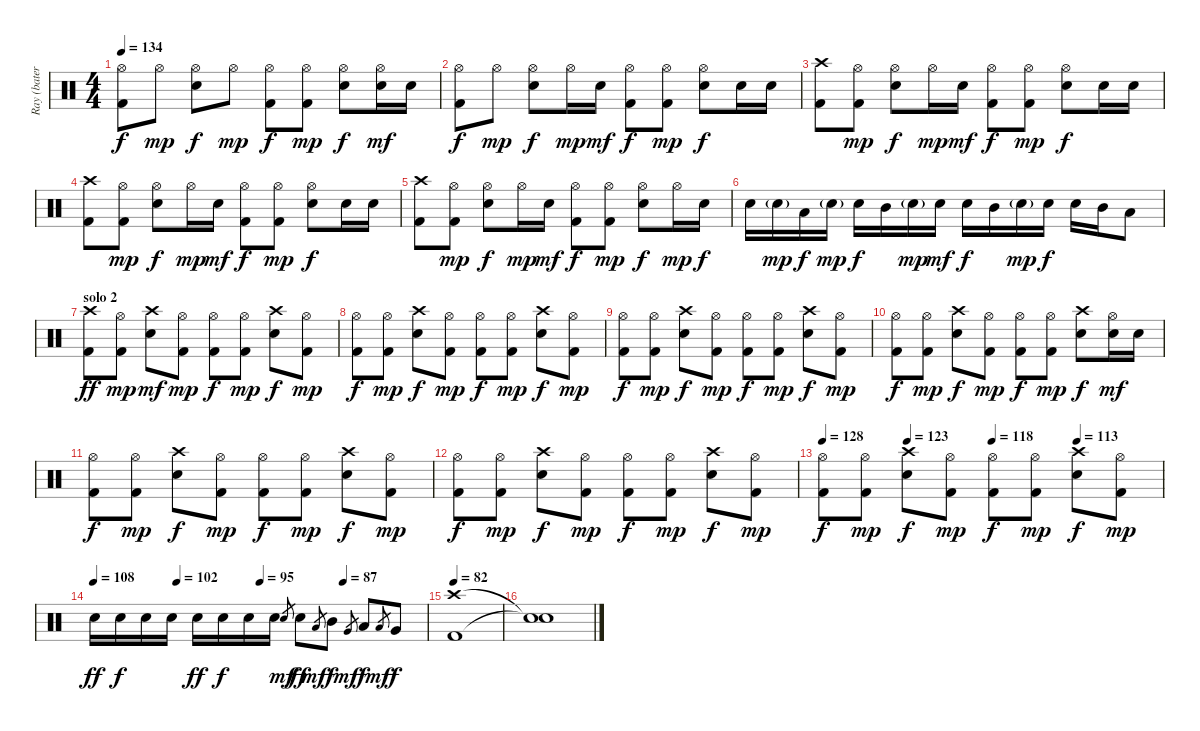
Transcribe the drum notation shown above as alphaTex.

\track ("Ray (batería)" "Ray (bater") {instrument percussion}
\staff {score}
\articulation defaults
\ts (4 4)
\tempo 134
\clef neutral
\ks c
("Hi-Hat (open)" "Kick (hit) 2").8{dy f} "Hi-Hat (open)".8{dy mp} ("Hi-Hat (open)" "Snare (hit) 2").8{dy f} "Hi-Hat (open)".8{dy mp} ("Hi-Hat (open)" "Kick (hit) 2").8{dy f} ("Hi-Hat (open)" "Kick (hit) 2").8{dy mp} ("Hi-Hat (open)" "Snare (hit) 2").8{dy f} ("Hi-Hat (open)" "Snare (hit) 2").16{dy mf} "Snare (hit) 2".16 |
("Hi-Hat (open)" "Kick (hit) 2").8{dy f} "Hi-Hat (open)".8{dy mp} ("Hi-Hat (open)" "Snare (hit) 2").8{dy f} "Hi-Hat (open)".16{dy mp} "Snare (hit) 2".16{dy mf} ("Hi-Hat (open)" "Kick (hit) 2").8{dy f} ("Hi-Hat (open)" "Kick (hit) 2").8{dy mp} ("Hi-Hat (open)" "Snare (hit) 2").8{dy f} "Snare (hit) 2".16 "Snare (hit) 2".16 |
("Crash high (hit)" "Kick (hit) 2").8 ("Hi-Hat (open)" "Kick (hit) 2").8{dy mp} ("Hi-Hat (open)" "Snare (hit) 2").8{dy f} "Hi-Hat (open)".16{dy mp} "Snare (hit) 2".16{dy mf} ("Hi-Hat (open)" "Kick (hit) 2").8{dy f} ("Hi-Hat (open)" "Kick (hit) 2").8{dy mp} ("Hi-Hat (open)" "Snare (hit) 2").8{dy f} "Snare (hit) 2".16 "Snare (hit) 2".16 |
("Crash high (hit)" "Kick (hit) 2").8 ("Hi-Hat (open)" "Kick (hit) 2").8{dy mp} ("Hi-Hat (open)" "Snare (hit) 2").8{dy f} "Hi-Hat (open)".16{dy mp} "Snare (hit) 2".16{dy mf} ("Hi-Hat (open)" "Kick (hit) 2").8{dy f} ("Hi-Hat (open)" "Kick (hit) 2").8{dy mp} ("Hi-Hat (open)" "Snare (hit) 2").8{dy f} "Snare (hit) 2".16 "Snare (hit) 2".16 |
("Crash high (hit)" "Kick (hit) 2").8 ("Hi-Hat (open)" "Kick (hit) 2").8{dy mp} ("Hi-Hat (open)" "Snare (hit) 2").8{dy f} "Hi-Hat (open)".16{dy mp} "Snare (hit) 2".16{dy mf} ("Hi-Hat (open)" "Kick (hit) 2").8{dy f} ("Hi-Hat (open)" "Kick (hit) 2").8{dy mp} ("Hi-Hat (open)" "Snare (hit) 2").8{dy f} "Hi-Hat (open)".16{dy mp} "Snare (hit) 2".16{dy f} |
"Snare (hit) 2".16 "Snare (hit) 2"{g}.16{dy mp} "Low Tom (hit)".16{dy f} "Snare (hit) 2"{g}.16{dy mp} "Snare (hit) 2".16{dy f} "Mid Tom (hit)".16 "Snare (hit) 2"{g}.16{dy mp} "Snare (hit) 2".16{dy mf} "Snare (hit) 2".16{dy f} "Mid Tom (hit)".16 "Snare (hit) 2"{g}.16{dy mp} "Snare (hit) 2".16{dy f} "Snare (hit) 2".16 "Mid Tom (hit)".16 "Low Tom (hit)".8 |
\section ("" "solo 2")
("Crash high (hit)" "Kick (hit) 2").8{dy ff} ("Hi-Hat (open)" "Kick (hit) 2").8{dy mp} ("Crash high (hit)" "Snare (hit) 2").8{dy mf} ("Hi-Hat (open)" "Kick (hit) 2").8{dy mp} ("Hi-Hat (open)" "Kick (hit) 2").8{dy f} ("Hi-Hat (open)" "Kick (hit) 2").8{dy mp} ("Crash high (hit)" "Snare (hit) 2").8{dy f} ("Hi-Hat (open)" "Kick (hit) 2").8{dy mp} |
("Hi-Hat (open)" "Kick (hit) 2").8{dy f} ("Hi-Hat (open)" "Kick (hit) 2").8{dy mp} ("Crash high (hit)" "Snare (hit) 2").8{dy f} ("Hi-Hat (open)" "Kick (hit) 2").8{dy mp} ("Hi-Hat (open)" "Kick (hit) 2").8{dy f} ("Hi-Hat (open)" "Kick (hit) 2").8{dy mp} ("Crash high (hit)" "Snare (hit) 2").8{dy f} ("Hi-Hat (open)" "Kick (hit) 2").8{dy mp} |
("Hi-Hat (open)" "Kick (hit) 2").8{dy f} ("Hi-Hat (open)" "Kick (hit) 2").8{dy mp} ("Crash high (hit)" "Snare (hit) 2").8{dy f} ("Hi-Hat (open)" "Kick (hit) 2").8{dy mp} ("Hi-Hat (open)" "Kick (hit) 2").8{dy f} ("Hi-Hat (open)" "Kick (hit) 2").8{dy mp} ("Crash high (hit)" "Snare (hit) 2").8{dy f} ("Hi-Hat (open)" "Kick (hit) 2").8{dy mp} |
("Hi-Hat (open)" "Kick (hit) 2").8{dy f} ("Hi-Hat (open)" "Kick (hit) 2").8{dy mp} ("Crash high (hit)" "Snare (hit) 2").8{dy f} ("Hi-Hat (open)" "Kick (hit) 2").8{dy mp} ("Hi-Hat (open)" "Kick (hit) 2").8{dy f} ("Hi-Hat (open)" "Kick (hit) 2").8{dy mp} ("Crash high (hit)" "Snare (hit) 2").8{dy f} ("Hi-Hat (open)" "Snare (hit) 2").16{dy mf} "Snare (hit) 2".16 |
("Hi-Hat (open)" "Kick (hit) 2").8{dy f} ("Hi-Hat (open)" "Kick (hit) 2").8{dy mp} ("Crash high (hit)" "Snare (hit) 2").8{dy f} ("Hi-Hat (open)" "Kick (hit) 2").8{dy mp} ("Hi-Hat (open)" "Kick (hit) 2").8{dy f} ("Hi-Hat (open)" "Kick (hit) 2").8{dy mp} ("Crash high (hit)" "Snare (hit) 2").8{dy f} ("Hi-Hat (open)" "Kick (hit) 2").8{dy mp} |
("Hi-Hat (open)" "Kick (hit) 2").8{dy f} ("Hi-Hat (open)" "Kick (hit) 2").8{dy mp} ("Crash high (hit)" "Snare (hit) 2").8{dy f} ("Hi-Hat (open)" "Kick (hit) 2").8{dy mp} ("Hi-Hat (open)" "Kick (hit) 2").8{dy f} ("Hi-Hat (open)" "Kick (hit) 2").8{dy mp} ("Crash high (hit)" "Snare (hit) 2").8{dy f} ("Hi-Hat (open)" "Kick (hit) 2").8{dy mp} |
\tempo 128
\tempo (123 0.25)
\tempo (118 0.5)
\tempo (113 0.75)
("Hi-Hat (open)" "Kick (hit) 2").8{dy f} ("Hi-Hat (open)" "Kick (hit) 2").8{dy mp} ("Crash high (hit)" "Snare (hit) 2").8{dy f} ("Hi-Hat (open)" "Kick (hit) 2").8{dy mp} ("Hi-Hat (open)" "Kick (hit) 2").8{dy f} ("Hi-Hat (open)" "Kick (hit) 2").8{dy mp} ("Crash high (hit)" "Snare (hit) 2").8{dy f} ("Hi-Hat (open)" "Kick (hit) 2").8{dy mp} |
\tempo 108
\tempo (102 0.25)
\tempo (95 0.5)
\tempo (87 0.75)
"Snare (hit) 2".16{dy ff} "Snare (hit) 2".16{dy f} "Snare (hit) 2".16 "Snare (hit) 2".16 "Snare (hit) 2".16{dy ff} "Snare (hit) 2".16{dy f} "Snare (hit) 2".16 "Snare (hit) 2".16 "Snare (hit) 2".8{gr dy mf} "Snare (hit) 2".8{dy ff} "Low Tom (hit)".8{gr dy mf} "Mid Tom (hit)".8{dy f} "Very Low Tom (hit)".8{gr dy mf} "Low Tom (hit)".8{dy f} "Low Floor Tom (hit)".8{gr dy mf} "Very Low Tom (hit)".8{dy f} |
\tempo 82
("Crash high (hit)" "Kick (hit) 2").1 |
("Snare (hit)"{t} "Snare (hit)"{t}).1
